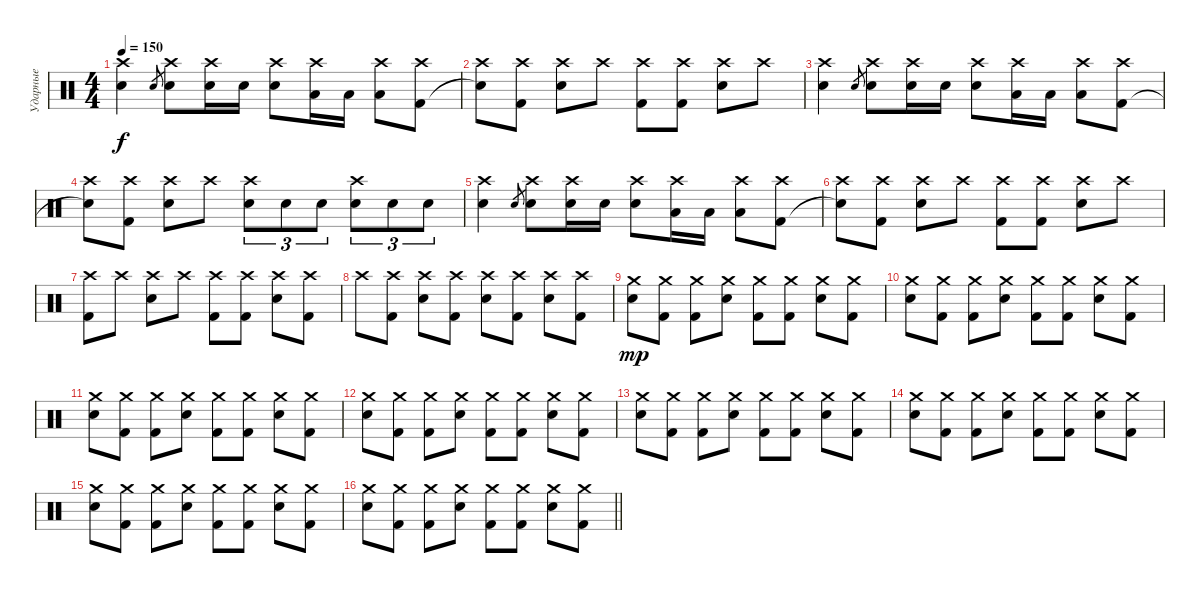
\track ("Ударные" "Ударные") {instrument percussion}
\staff {score}
\articulation defaults
\ts (4 4)
\tempo 150
\clef neutral
\ks c
("Crash high (hit)" "Snare (hit) 2").4{dy f} "Snare (hit) 2".8{gr} ("Crash high (hit)" "Snare (hit) 2").8 ("Crash high (hit)" "Snare (hit) 2").16 "Snare (hit) 2".16 ("Crash high (hit)" "Snare (hit) 2").8 ("Crash high (hit)" "Low Floor Tom (hit)").16 "Low Floor Tom (hit)".16 ("Crash high (hit)" "Low Floor Tom (hit)").8 ("Crash high (hit)" "Kick (hit) 2").8 |
("Crash high (hit)" "Snare (hit)"{t}).8 ("Crash high (hit)" "Kick (hit) 2").8 ("Crash high (hit)" "Snare (hit) 2").8 "Crash high (hit)".8 ("Crash high (hit)" "Kick (hit) 2").8 ("Crash high (hit)" "Kick (hit) 2").8 ("Crash high (hit)" "Snare (hit) 2").8 "Crash high (hit)".8 |
("Crash high (hit)" "Snare (hit) 2").4 "Snare (hit) 2".8{gr} ("Crash high (hit)" "Snare (hit) 2").8 ("Crash high (hit)" "Snare (hit) 2").16 "Snare (hit) 2".16 ("Crash high (hit)" "Snare (hit) 2").8 ("Crash high (hit)" "Low Floor Tom (hit)").16 "Low Floor Tom (hit)".16 ("Crash high (hit)" "Low Floor Tom (hit)").8 ("Crash high (hit)" "Kick (hit) 2").8 |
("Crash high (hit)" "Snare (hit)"{t}).8 ("Crash high (hit)" "Kick (hit) 2").8 ("Crash high (hit)" "Snare (hit) 2").8 "Crash high (hit)".8 ("Crash high (hit)" "Snare (hit) 2").8{tu (3 2)} "Snare (hit) 2".8{tu (3 2)} "Snare (hit) 2".8{tu (3 2)} ("Crash high (hit)" "Snare (hit) 2").8{tu (3 2)} "Snare (hit) 2".8{tu (3 2)} "Snare (hit) 2".8{tu (3 2)} |
("Crash high (hit)" "Snare (hit) 2").4 "Snare (hit) 2".8{gr} ("Crash high (hit)" "Snare (hit) 2").8 ("Crash high (hit)" "Snare (hit) 2").16 "Snare (hit) 2".16 ("Crash high (hit)" "Snare (hit) 2").8 ("Crash high (hit)" "Low Floor Tom (hit)").16 "Low Floor Tom (hit)".16 ("Crash high (hit)" "Low Floor Tom (hit)").8 ("Crash high (hit)" "Kick (hit) 2").8 |
("Crash high (hit)" "Snare (hit)"{t}).8 ("Crash high (hit)" "Kick (hit) 2").8 ("Crash high (hit)" "Snare (hit) 2").8 "Crash high (hit)".8 ("Crash high (hit)" "Kick (hit) 2").8 ("Crash high (hit)" "Kick (hit) 2").8 ("Crash high (hit)" "Snare (hit) 2").8 "Crash high (hit)".8 |
("Crash high (hit)" "Kick (hit) 2").8 "Crash high (hit)".8 ("Crash high (hit)" "Snare (hit) 2").8 "Crash high (hit)".8 ("Crash high (hit)" "Kick (hit) 2").8 ("Crash high (hit)" "Kick (hit) 2").8 ("Crash high (hit)" "Snare (hit) 2").8 ("Crash high (hit)" "Kick (hit) 2").8 |
"Crash high (hit)".8 ("Crash high (hit)" "Kick (hit) 2").8 ("Crash high (hit)" "Snare (hit) 2").8 ("Crash high (hit)" "Kick (hit) 2").8 ("Crash high (hit)" "Snare (hit) 2").8 ("Crash high (hit)" "Kick (hit) 2").8 ("Crash high (hit)" "Snare (hit) 2").8 ("Crash high (hit)" "Kick (hit) 2").8 |
("Crash medium (hit)" "Snare (hit) 2").8{dy mp volume 13} ("Crash medium (hit)" "Kick (hit) 2").8 ("Crash medium (hit)" "Kick (hit) 2").8 ("Crash medium (hit)" "Snare (hit) 2").8 ("Crash medium (hit)" "Kick (hit) 2").8 ("Crash medium (hit)" "Kick (hit) 2").8 ("Crash medium (hit)" "Snare (hit) 2").8 ("Crash medium (hit)" "Kick (hit) 2").8 |
("Crash medium (hit)" "Snare (hit) 2").8 ("Crash medium (hit)" "Kick (hit) 2").8 ("Crash medium (hit)" "Kick (hit) 2").8 ("Crash medium (hit)" "Snare (hit) 2").8 ("Crash medium (hit)" "Kick (hit) 2").8 ("Crash medium (hit)" "Kick (hit) 2").8 ("Crash medium (hit)" "Snare (hit) 2").8 ("Crash medium (hit)" "Kick (hit) 2").8 |
("Crash medium (hit)" "Snare (hit) 2").8 ("Crash medium (hit)" "Kick (hit) 2").8 ("Crash medium (hit)" "Kick (hit) 2").8 ("Crash medium (hit)" "Snare (hit) 2").8 ("Crash medium (hit)" "Kick (hit) 2").8 ("Crash medium (hit)" "Kick (hit) 2").8 ("Crash medium (hit)" "Snare (hit) 2").8 ("Crash medium (hit)" "Kick (hit) 2").8 |
("Crash medium (hit)" "Snare (hit) 2").8 ("Crash medium (hit)" "Kick (hit) 2").8 ("Crash medium (hit)" "Kick (hit) 2").8 ("Crash medium (hit)" "Snare (hit) 2").8 ("Crash medium (hit)" "Kick (hit) 2").8 ("Crash medium (hit)" "Kick (hit) 2").8 ("Crash medium (hit)" "Snare (hit) 2").8 ("Crash medium (hit)" "Kick (hit) 2").8 |
("Crash medium (hit)" "Snare (hit) 2").8 ("Crash medium (hit)" "Kick (hit) 2").8 ("Crash medium (hit)" "Kick (hit) 2").8 ("Crash medium (hit)" "Snare (hit) 2").8 ("Crash medium (hit)" "Kick (hit) 2").8 ("Crash medium (hit)" "Kick (hit) 2").8 ("Crash medium (hit)" "Snare (hit) 2").8 ("Crash medium (hit)" "Kick (hit) 2").8 |
("Crash medium (hit)" "Snare (hit) 2").8 ("Crash medium (hit)" "Kick (hit) 2").8 ("Crash medium (hit)" "Kick (hit) 2").8 ("Crash medium (hit)" "Snare (hit) 2").8 ("Crash medium (hit)" "Kick (hit) 2").8 ("Crash medium (hit)" "Kick (hit) 2").8 ("Crash medium (hit)" "Snare (hit) 2").8 ("Crash medium (hit)" "Kick (hit) 2").8 |
("Crash medium (hit)" "Snare (hit) 2").8 ("Crash medium (hit)" "Kick (hit) 2").8 ("Crash medium (hit)" "Kick (hit) 2").8 ("Crash medium (hit)" "Snare (hit) 2").8 ("Crash medium (hit)" "Kick (hit) 2").8 ("Crash medium (hit)" "Kick (hit) 2").8 ("Crash medium (hit)" "Snare (hit) 2").8 ("Crash medium (hit)" "Kick (hit) 2").8 |
\barLineRight lightlight
("Crash medium (hit)" "Snare (hit) 2").8 ("Crash medium (hit)" "Kick (hit) 2").8 ("Crash medium (hit)" "Kick (hit) 2").8 ("Crash medium (hit)" "Snare (hit) 2").8 ("Crash medium (hit)" "Kick (hit) 2").8 ("Crash medium (hit)" "Kick (hit) 2").8 ("Crash medium (hit)" "Snare (hit) 2").8 ("Crash medium (hit)" "Kick (hit) 2").8
